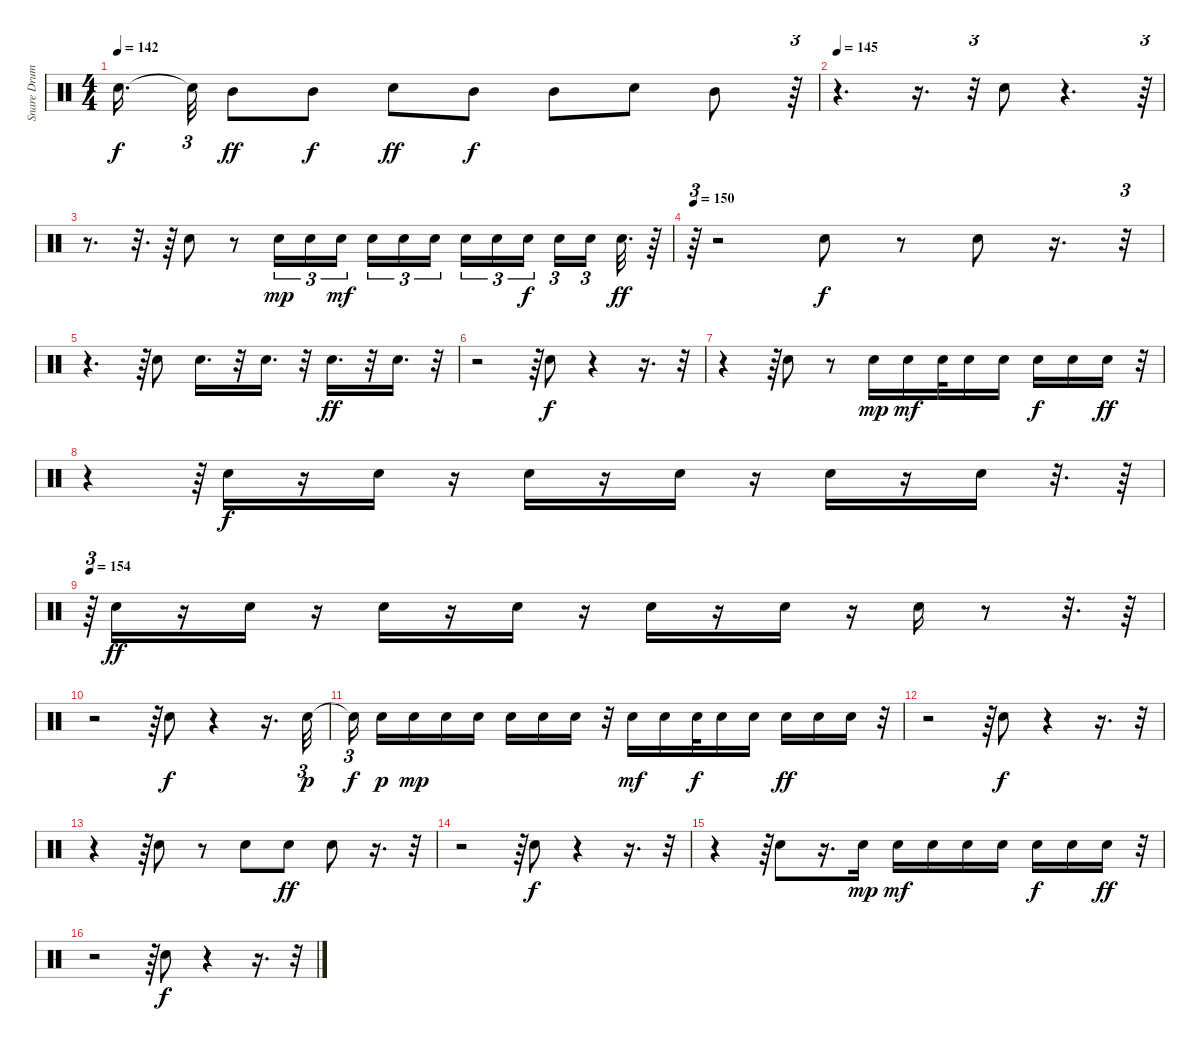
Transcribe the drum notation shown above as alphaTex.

\track ("Snare Drums" "Snare Drum") {instrument percussion}
\staff {score}
\articulation defaults
\ts (4 4)
\tempo 142
\clef neutral
\ks c "Snare (hit)"{t}.16{d dy f} "Snare (hit)"{t}.32{tu (3 2)} "Mid Tom (hit)".8{dy ff} "Mid Tom (hit)".8{dy f} "Electric Snare (hit)".8{dy ff} "Mid Tom (hit)".8{dy f} "Mid Tom (hit)".8 "Electric Snare (hit)".8 "Mid Tom (hit)".8
r.64{tu (3 2)} |
\tempo 145
r.4{d} r.16{d} r.32{tu (3 2)} "Electric Snare (hit)".8 r.4{d} r.64{tu (3 2)} |
r.8{d} r.32{d} r.64 "Electric Snare (hit)".8 r.8 "Electric Snare (hit)".16{tu (3 2) dy mp} "Electric Snare (hit)".16{tu (3 2)} "Electric Snare (hit)".16{tu (3 2) dy mf} "Electric Snare (hit)".16{tu (3 2)} "Electric Snare (hit)".16{tu (3 2)} "Electric Snare (hit)".16{tu (3 2)} "Electric Snare (hit)".16{tu (3 2)} "Electric Snare (hit)".16{tu (3 2)} "Electric Snare (hit)".16{tu (3 2) dy f} "Electric Snare (hit)".16{tu (3 2)} "Electric Snare (hit)".16{tu (3 2)} "Electric Snare (hit)".32{d dy ff} r.64 |
\tempo 150
r.64{tu (3 2)} r.2 "Electric Snare (hit)".8{dy f} r.8 "Electric Snare (hit)".8 r.16{d} r.32{tu (3 2)} |
r.4{d} r.64{tu (3 2)} "Electric Snare (hit)".8 "Electric Snare (hit)".16{d} r.32 "Electric Snare (hit)".16{d} r.32 "Electric Snare (hit)".16{d dy ff} r.32 "Electric Snare (hit)".16{d} r.32{tu (3 2)} |
r.2 r.64{tu (3 2)} "Electric Snare (hit)".8{dy f} r.4 r.16{d} r.32{tu (3 2)} |
r.4 r.64{tu (3 2)} "Electric Snare (hit)".8 r.8 "Electric Snare (hit)".16{dy mp} "Electric Snare (hit)".16{dy mf} "Electric Snare (hit)".32 "Electric Snare (hit)".16 "Electric Snare (hit)".16 "Electric Snare (hit)".16{dy f} "Electric Snare (hit)".16 "Electric Snare (hit)".16{dy ff} r.32{tu (3 2)} |
r.4 r.64{tu (3 2)} "Electric Snare (hit)".16{dy f} r.16 "Electric Snare (hit)".16 r.16 "Electric Snare (hit)".16 r.16 "Electric Snare (hit)".16 r.16 "Electric Snare (hit)".16 r.16 "Electric Snare (hit)".16 r.32{d} r.64 |
\tempo 154
r.64{tu (3 2)} "Electric Snare (hit)".16{dy ff} r.16 "Electric Snare (hit)".16 r.16 "Electric Snare (hit)".16 r.16 "Electric Snare (hit)".16 r.16 "Electric Snare (hit)".16 r.16 "Electric Snare (hit)".16 r.16 "Electric Snare (hit)".16 r.8 r.32{d} r.64 |
r.2 r.64{tu (3 2)} "Electric Snare (hit)".8{dy f} r.4 r.16{d} "Electric Snare (hit)".32{tu (3 2) dy p} |
"Snare (hit)"{t}.16{tu (3 2) dy f} "Electric Snare (hit)".16{dy p} "Electric Snare (hit)".16{dy mp} "Electric Snare (hit)".16 "Electric Snare (hit)".16 "Electric Snare (hit)".16 "Electric Snare (hit)".16 "Electric Snare (hit)".16 r.32 "Electric Snare (hit)".16{dy mf} "Electric Snare (hit)".16 "Electric Snare (hit)".32{dy f} "Electric Snare (hit)".16 "Electric Snare (hit)".16 "Electric Snare (hit)".16{dy ff} "Electric Snare (hit)".16 "Electric Snare (hit)".16 r.32{tu (3 2)} |
r.2 r.64{tu (3 2)} "Electric Snare (hit)".8{dy f} r.4 r.16{d} r.32{tu (3 2)} |
r.4 r.64{tu (3 2)} "Electric Snare (hit)".8 r.8 "Electric Snare (hit)".8 "Electric Snare (hit)".8{dy ff} "Electric Snare (hit)".8 r.16{d} r.32{tu (3 2)} |
r.2 r.64{tu (3 2)} "Electric Snare (hit)".8{dy f} r.4 r.16{d} r.32{tu (3 2)} |
r.4 r.64{tu (3 2)} "Electric Snare (hit)".8 r.16{d} "Electric Snare (hit)".16{dy mp} "Electric Snare (hit)".16{dy mf} "Electric Snare (hit)".16 "Electric Snare (hit)".16 "Electric Snare (hit)".16 "Electric Snare (hit)".16{dy f} "Electric Snare (hit)".16 "Electric Snare (hit)".16{dy ff} r.32{tu (3 2)} |
r.2 r.64{tu (3 2)} "Electric Snare (hit)".8{dy f} r.4 r.16{d} r.32{tu (3 2)}
